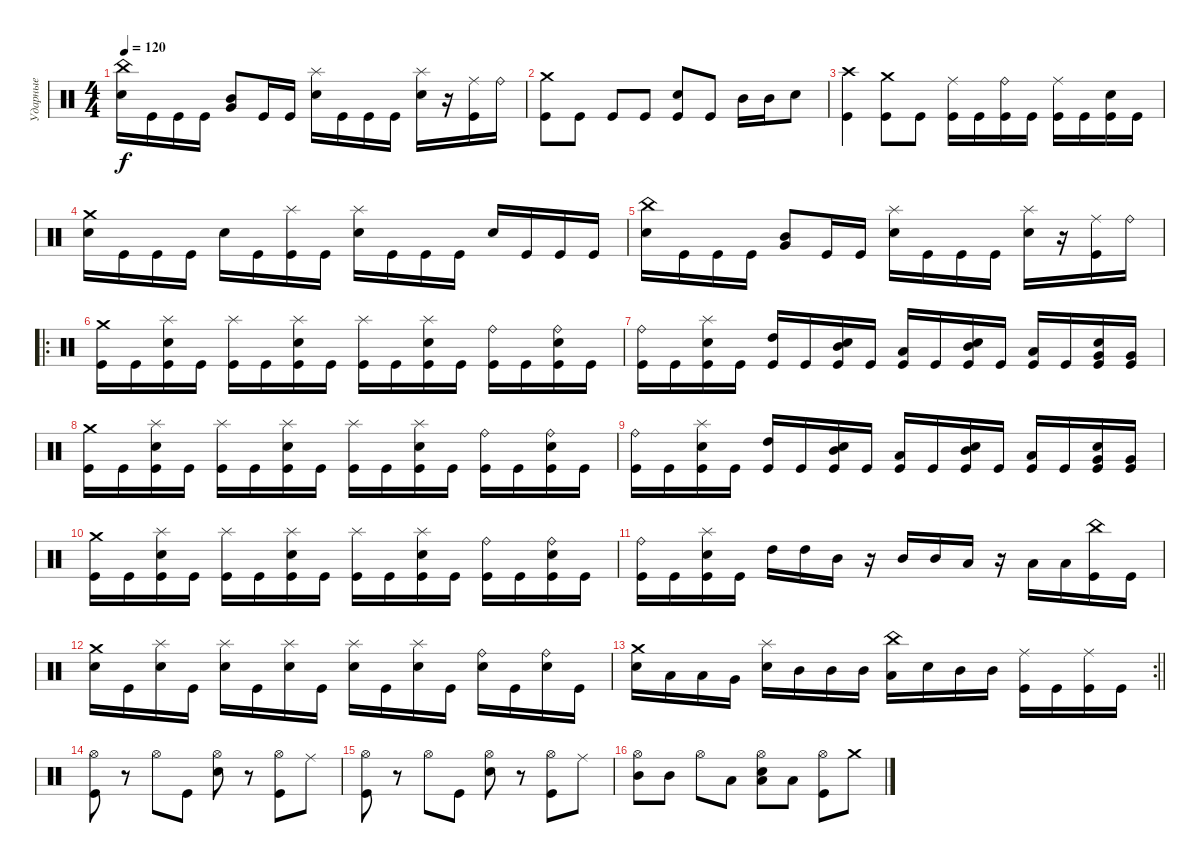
\track ("Ударные" "Ударные") {instrument percussion}
\staff {score}
\articulation defaults
\ts (4 4)
\tempo 120
\clef neutral
\ks c
("China (hit)" "Electric Snare (hit)").16{dy f} "Kick (hit)".16 "Kick (hit)".16 "Kick (hit)".16 ("Mid Tom (hit)" "Very Low Tom (hit)").8 "Kick (hit)".16 "Kick (hit)".16 ("Splash (hit)" "Electric Snare (hit)").16 "Kick (hit)".16 "Kick (hit)".16 "Kick (hit)".16 ("Splash (hit)" "Electric Snare (hit)").16 r.16 ("Ride (middle)" "Kick (hit)").16 "Ride (bell)".16 |
("Kick (hit)" "Crash medium (hit)").8 "Kick (hit)".8 "Kick (hit)".8 "Kick (hit)".8 ("Kick (hit)" "Electric Snare (hit)").8 "Kick (hit)".8 "Mid Tom (hit)".16 "Mid Tom (hit)".16 "Electric Snare (hit)".8 |
("Crash high (hit)" "Kick (hit)").4 ("Kick (hit)" "Crash medium (hit)").8 "Kick (hit)".8 ("Kick (hit)" "Ride (middle)").16 "Kick (hit)".16 ("Kick (hit)" "Ride (bell)").16 "Kick (hit)".16 ("Kick (hit)" "Ride (middle)").16 "Kick (hit)".16 ("Kick (hit)" "Electric Snare (hit)").16 "Kick (hit)".16 |
("Crash medium (hit)" "Electric Snare (hit)").16 "Kick (hit)".16 "Kick (hit)".16 "Kick (hit)".16 "Electric Snare (hit)".16 "Kick (hit)".16 ("Splash (hit)" "Kick (hit)").16 "Kick (hit)".16 ("Splash (hit)" "Electric Snare (hit)").16 "Kick (hit)".16 "Kick (hit)".16 "Kick (hit)".16 "Electric Snare (hit)".16 "Kick (hit)".16 "Kick (hit)".16 "Kick (hit)".16 |
("China (hit)" "Electric Snare (hit)").16 "Kick (hit)".16 "Kick (hit)".16 "Kick (hit)".16 ("Mid Tom (hit)" "Very Low Tom (hit)").8 "Kick (hit)".16 "Kick (hit)".16 ("Splash (hit)" "Electric Snare (hit)").16 "Kick (hit)".16 "Kick (hit)".16 "Kick (hit)".16 ("Splash (hit)" "Electric Snare (hit)").16 r.16 ("Ride (middle)" "Kick (hit)").16 "Ride (bell)".16 |
\ro
("Crash medium (hit)" "Kick (hit)").16 "Kick (hit)".16 ("Splash (hit)" "Electric Snare (hit)" "Kick (hit)").16 "Kick (hit)".16 ("Splash (hit)" "Kick (hit)").16 "Kick (hit)".16 ("Splash (hit)" "Electric Snare (hit)" "Kick (hit)").16 "Kick (hit)".16 ("Splash (hit)" "Kick (hit)").16 "Kick (hit)".16 ("Splash (hit)" "Electric Snare (hit)" "Kick (hit)").16 "Kick (hit)".16 ("Ride (bell)" "Kick (hit)").16 "Kick (hit)".16 ("Ride (bell)" "Electric Snare (hit)" "Kick (hit)").16 "Kick (hit)".16 |
("Ride (bell)" "Kick (hit)").16 "Kick (hit)".16 ("Splash (hit)" "Electric Snare (hit)" "Kick (hit)").16 "Kick (hit)".16 ("High Tom (hit)" "Kick (hit)").16 "Kick (hit)".16 ("Mid Tom (hit)" "Electric Snare (hit)" "Kick (hit)").16 "Kick (hit)".16 ("Low Tom (hit)" "Kick (hit)").16 "Kick (hit)".16 ("Mid Tom (hit)" "Electric Snare (hit)" "Kick (hit)").16 "Kick (hit)".16 ("Low Tom (hit)" "Kick (hit)").16 "Kick (hit)".16 ("Very Low Tom (hit)" "Electric Snare (hit)" "Kick (hit)").16 ("Very Low Tom (hit)" "Kick (hit)").16 |
("Crash medium (hit)" "Kick (hit)").16 "Kick (hit)".16 ("Splash (hit)" "Electric Snare (hit)" "Kick (hit)").16 "Kick (hit)".16 ("Splash (hit)" "Kick (hit)").16 "Kick (hit)".16 ("Splash (hit)" "Electric Snare (hit)" "Kick (hit)").16 "Kick (hit)".16 ("Splash (hit)" "Kick (hit)").16 "Kick (hit)".16 ("Splash (hit)" "Electric Snare (hit)" "Kick (hit)").16 "Kick (hit)".16 ("Ride (bell)" "Kick (hit)").16 "Kick (hit)".16 ("Ride (bell)" "Electric Snare (hit)" "Kick (hit)").16 "Kick (hit)".16 |
("Ride (bell)" "Kick (hit)").16 "Kick (hit)".16 ("Splash (hit)" "Electric Snare (hit)" "Kick (hit)").16 "Kick (hit)".16 ("High Tom (hit)" "Kick (hit)").16 "Kick (hit)".16 ("Mid Tom (hit)" "Electric Snare (hit)" "Kick (hit)").16 "Kick (hit)".16 ("Low Tom (hit)" "Kick (hit)").16 "Kick (hit)".16 ("Mid Tom (hit)" "Electric Snare (hit)" "Kick (hit)").16 "Kick (hit)".16 ("Low Tom (hit)" "Kick (hit)").16 "Kick (hit)".16 ("Very Low Tom (hit)" "Electric Snare (hit)" "Kick (hit)").16 ("Very Low Tom (hit)" "Kick (hit)").16 |
("Crash medium (hit)" "Kick (hit)").16 "Kick (hit)".16 ("Splash (hit)" "Electric Snare (hit)" "Kick (hit)").16 "Kick (hit)".16 ("Splash (hit)" "Kick (hit)").16 "Kick (hit)".16 ("Splash (hit)" "Electric Snare (hit)" "Kick (hit)").16 "Kick (hit)".16 ("Splash (hit)" "Kick (hit)").16 "Kick (hit)".16 ("Splash (hit)" "Electric Snare (hit)" "Kick (hit)").16 "Kick (hit)".16 ("Ride (bell)" "Kick (hit)").16 "Kick (hit)".16 ("Ride (bell)" "Electric Snare (hit)" "Kick (hit)").16 "Kick (hit)".16 |
("Ride (bell)" "Kick (hit)").16 "Kick (hit)".16 ("Splash (hit)" "Electric Snare (hit)" "Kick (hit)").16 "Kick (hit)".16 "High Tom (hit)".16 "High Tom (hit)".16 "Mid Tom (hit)".16 r.16 "Mid Tom (hit)".16 "Mid Tom (hit)".16 "Low Tom (hit)".16 r.16 "Low Tom (hit)".16 "Low Tom (hit)".16 ("China (hit)" "Kick (hit)").16 "Kick (hit)".16 |
("Crash medium (hit)" "Electric Snare (hit)").16 "Kick (hit)".16 ("Splash (hit)" "Electric Snare (hit)").16 "Kick (hit)".16 ("Splash (hit)" "Electric Snare (hit)").16 "Kick (hit)".16 ("Splash (hit)" "Electric Snare (hit)").16 "Kick (hit)".16 ("Splash (hit)" "Electric Snare (hit)").16 "Kick (hit)".16 ("Splash (hit)" "Electric Snare (hit)").16 "Kick (hit)".16 ("Ride (bell)" "Electric Snare (hit)").16 "Kick (hit)".16 ("Ride (bell)" "Electric Snare (hit)").16 "Kick (hit)".16 |
\rc 2
\barLineRight lightlight
("Crash medium (hit)" "Electric Snare (hit)").16 "Low Tom (hit)".16 "Low Tom (hit)".16 "Very Low Tom (hit)".16 ("Splash (hit)" "Electric Snare (hit)").16 "Mid Tom (hit)".16 "Mid Tom (hit)".16 "Mid Tom (hit)".16 ("China (hit)" "Low Tom (hit)").16 "Electric Snare (hit)".16 "Mid Tom (hit)".16 "Mid Tom (hit)".16 ("Ride (middle)" "Kick (hit)").16 "Kick (hit)".16 ("Ride (middle)" "Kick (hit)").16 "Kick (hit)".16 |
\section ("" " ")
("Kick (hit)" "Hi-Hat (open)").8 r.8 "Hi-Hat (open)".8 "Kick (hit)".8 ("Electric Snare (hit)" "Hi-Hat (open)").8 r.8 ("Kick (hit)" "Hi-Hat (open)").8 "Ride (middle)".8 |
("Kick (hit)" "Hi-Hat (open)").8 r.8 "Hi-Hat (open)".8 "Kick (hit)".8 ("Electric Snare (hit)" "Hi-Hat (open)").8 r.8 ("Kick (hit)" "Hi-Hat (open)").8 "Ride (middle)".8 |
("Mid Tom (hit)" "Hi-Hat (open)").8 "Mid Tom (hit)".8 "Hi-Hat (open)".8 "Low Tom (hit)".8 ("Low Tom (hit)" "Electric Snare (hit)" "Hi-Hat (open)").8 "Low Tom (hit)".8 ("Kick (hit)" "Hi-Hat (open)").8 "Crash medium (hit)".8
